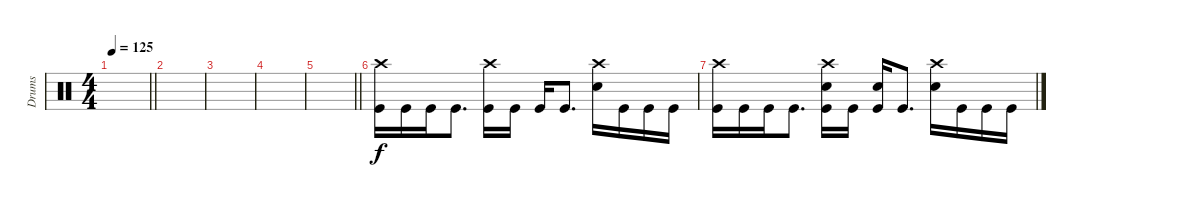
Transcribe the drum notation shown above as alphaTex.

\track ("Drums" "Drums") {instrument percussion}
\staff
\articulation defaults
\ts (4 4)
\tempo 125
\clef neutral
\barLineRight lightlight
\ks c
|
|
|
|
\barLineRight lightlight
|
("Crash high (hit)" "Kick (hit)").16 "Kick (hit)".16 "Kick (hit)".16 "Kick (hit)".8{d} ("Crash high (hit)" "Kick (hit)").16 "Kick (hit)".16 "Kick (hit)".16 "Kick (hit)".8{d} ("Crash high (hit)" "Electric Snare (hit)").16 "Kick (hit)".16 "Kick (hit)".16 "Kick (hit)".16 |
("Crash high (hit)" "Kick (hit)").16 "Kick (hit)".16 "Kick (hit)".16 "Kick (hit)".8{d} ("Crash high (hit)" "Electric Snare (hit)" "Kick (hit)").16 "Kick (hit)".16 ("Electric Snare (hit)" "Kick (hit)").16 "Kick (hit)".8{d} ("Crash high (hit)" "Electric Snare (hit)").16 "Kick (hit)".16 "Kick (hit)".16 "Kick (hit)".16
